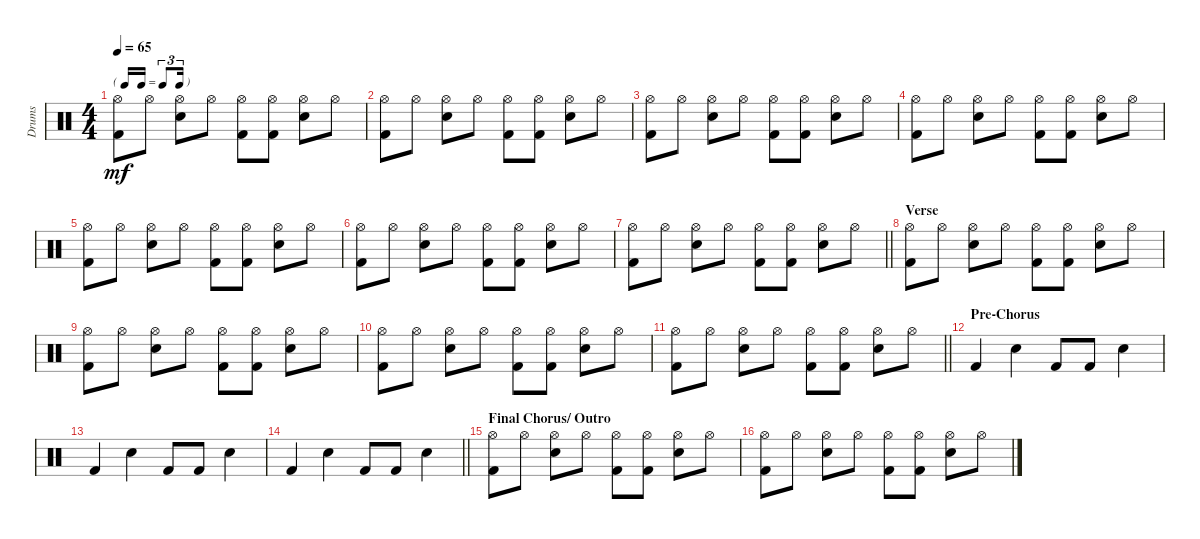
\track ("Drums" "Drums") {instrument percussion}
\staff {score}
\articulation defaults
\ts (4 4)
\tf triplet16th
\tempo 65
\clef neutral
\ks c
("Hi-Hat (open)" "Kick (hit) 2").8{dy mf} "Hi-Hat (open)".8 ("Hi-Hat (open)" "Snare (hit) 2").8 "Hi-Hat (open)".8 ("Hi-Hat (open)" "Kick (hit) 2").8 ("Hi-Hat (open)" "Kick (hit) 2").8 ("Hi-Hat (open)" "Snare (hit) 2").8 "Hi-Hat (open)".8 |
("Hi-Hat (open)" "Kick (hit) 2").8 "Hi-Hat (open)".8 ("Hi-Hat (open)" "Snare (hit) 2").8 "Hi-Hat (open)".8 ("Hi-Hat (open)" "Kick (hit) 2").8 ("Hi-Hat (open)" "Kick (hit) 2").8 ("Hi-Hat (open)" "Snare (hit) 2").8 "Hi-Hat (open)".8 |
("Hi-Hat (open)" "Kick (hit) 2").8 "Hi-Hat (open)".8 ("Hi-Hat (open)" "Snare (hit) 2").8 "Hi-Hat (open)".8 ("Hi-Hat (open)" "Kick (hit) 2").8 ("Hi-Hat (open)" "Kick (hit) 2").8 ("Hi-Hat (open)" "Snare (hit) 2").8 "Hi-Hat (open)".8 |
("Hi-Hat (open)" "Kick (hit) 2").8 "Hi-Hat (open)".8 ("Hi-Hat (open)" "Snare (hit) 2").8 "Hi-Hat (open)".8 ("Hi-Hat (open)" "Kick (hit) 2").8 ("Hi-Hat (open)" "Kick (hit) 2").8 ("Hi-Hat (open)" "Snare (hit) 2").8 "Hi-Hat (open)".8 |
("Hi-Hat (open)" "Kick (hit) 2").8 "Hi-Hat (open)".8 ("Hi-Hat (open)" "Snare (hit) 2").8 "Hi-Hat (open)".8 ("Hi-Hat (open)" "Kick (hit) 2").8 ("Hi-Hat (open)" "Kick (hit) 2").8 ("Hi-Hat (open)" "Snare (hit) 2").8 "Hi-Hat (open)".8 |
("Hi-Hat (open)" "Kick (hit) 2").8 "Hi-Hat (open)".8 ("Hi-Hat (open)" "Snare (hit) 2").8 "Hi-Hat (open)".8 ("Hi-Hat (open)" "Kick (hit) 2").8 ("Hi-Hat (open)" "Kick (hit) 2").8 ("Hi-Hat (open)" "Snare (hit) 2").8 "Hi-Hat (open)".8 |
\barLineRight lightlight
("Hi-Hat (open)" "Kick (hit) 2").8 "Hi-Hat (open)".8 ("Hi-Hat (open)" "Snare (hit) 2").8 "Hi-Hat (open)".8 ("Hi-Hat (open)" "Kick (hit) 2").8 ("Hi-Hat (open)" "Kick (hit) 2").8 ("Hi-Hat (open)" "Snare (hit) 2").8 "Hi-Hat (open)".8 |
\section ("" "Verse")
("Hi-Hat (open)" "Kick (hit) 2").8 "Hi-Hat (open)".8 ("Hi-Hat (open)" "Snare (hit) 2").8 "Hi-Hat (open)".8 ("Hi-Hat (open)" "Kick (hit) 2").8 ("Hi-Hat (open)" "Kick (hit) 2").8 ("Hi-Hat (open)" "Snare (hit) 2").8 "Hi-Hat (open)".8 |
("Hi-Hat (open)" "Kick (hit) 2").8 "Hi-Hat (open)".8 ("Hi-Hat (open)" "Snare (hit) 2").8 "Hi-Hat (open)".8 ("Hi-Hat (open)" "Kick (hit) 2").8 ("Hi-Hat (open)" "Kick (hit) 2").8 ("Hi-Hat (open)" "Snare (hit) 2").8 "Hi-Hat (open)".8 |
("Hi-Hat (open)" "Kick (hit) 2").8 "Hi-Hat (open)".8 ("Hi-Hat (open)" "Snare (hit) 2").8 "Hi-Hat (open)".8 ("Hi-Hat (open)" "Kick (hit) 2").8 ("Hi-Hat (open)" "Kick (hit) 2").8 ("Hi-Hat (open)" "Snare (hit) 2").8 "Hi-Hat (open)".8 |
\barLineRight lightlight
("Hi-Hat (open)" "Kick (hit) 2").8 "Hi-Hat (open)".8 ("Hi-Hat (open)" "Snare (hit) 2").8 "Hi-Hat (open)".8 ("Hi-Hat (open)" "Kick (hit) 2").8 ("Hi-Hat (open)" "Kick (hit) 2").8 ("Hi-Hat (open)" "Snare (hit) 2").8 "Hi-Hat (open)".8 |
\section ("" "Pre-Chorus")
"Kick (hit) 2".4 "Snare (hit) 2".4 "Kick (hit) 2".8 "Kick (hit) 2".8 "Snare (hit) 2".4 |
"Kick (hit) 2".4 "Snare (hit) 2".4 "Kick (hit) 2".8 "Kick (hit) 2".8 "Snare (hit) 2".4 |
\barLineRight lightlight "Kick (hit) 2".4 "Snare (hit) 2".4 "Kick (hit) 2".8 "Kick (hit) 2".8 "Snare (hit) 2".4
|
\section ("" "Final Chorus/ Outro")
("Hi-Hat (open)" "Kick (hit) 2").8 "Hi-Hat (open)".8 ("Hi-Hat (open)" "Snare (hit) 2").8 "Hi-Hat (open)".8 ("Hi-Hat (open)" "Kick (hit) 2").8 ("Hi-Hat (open)" "Kick (hit) 2").8 ("Hi-Hat (open)" "Snare (hit) 2").8 "Hi-Hat (open)".8 |
("Hi-Hat (open)" "Kick (hit) 2").8 "Hi-Hat (open)".8 ("Hi-Hat (open)" "Snare (hit) 2").8 "Hi-Hat (open)".8 ("Hi-Hat (open)" "Kick (hit) 2").8 ("Hi-Hat (open)" "Kick (hit) 2").8 ("Hi-Hat (open)" "Snare (hit) 2").8 "Hi-Hat (open)".8
